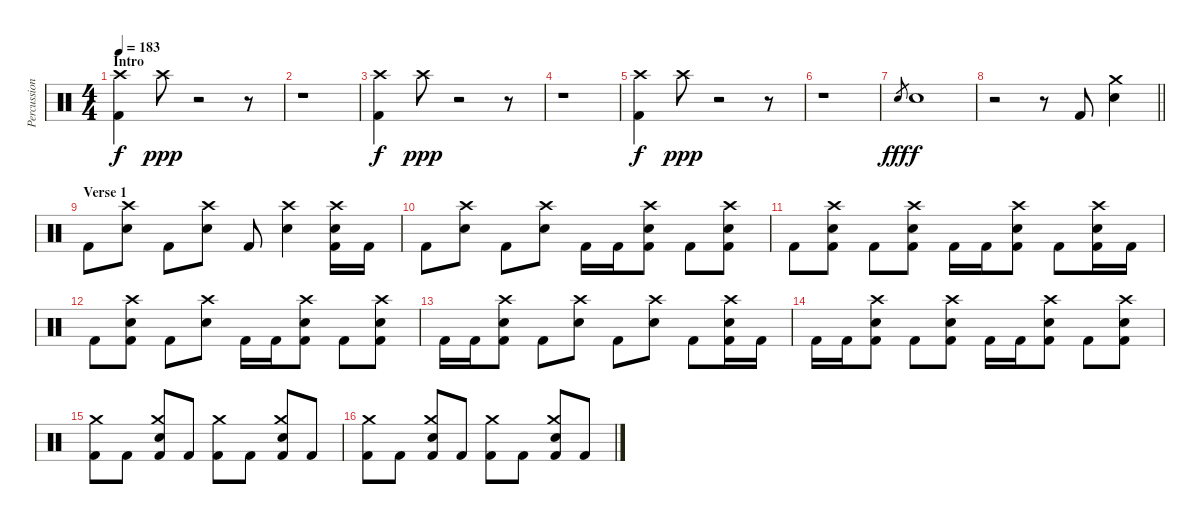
\track ("Percussion" "Percussion") {instrument percussion}
\staff {score}
\articulation defaults
\ts (4 4)
\section ("" "Intro")
\tempo 183
\clef neutral
\ks aminor
("Crash high (hit)" "Kick (hit) 2").4{dy f} "Crash high (hit)".8{dy ppp} r.2 r.8 |
r.1 |
("Crash high (hit)" "Kick (hit) 2").4{dy f} "Crash high (hit)".8{dy ppp} r.2 r.8 |
r.1 |
("Crash high (hit)" "Kick (hit) 2").4{dy f} "Crash high (hit)".8{dy ppp} r.2 r.8 |
r.1 |
"Snare (hit) 2".8{gr dy fff} "Snare (hit) 2".1{dy f} |
\barLineRight lightlight
r.2 r.8 "Kick (hit) 2".8 ("Crash medium (hit)" "Snare (hit) 2").4 |
\section ("" "Verse 1")
"Kick (hit) 2".8 ("Crash high (hit)" "Electric Snare (hit)").8 "Kick (hit) 2".8 ("Crash high (hit)" "Electric Snare (hit)").8 "Kick (hit) 2".8 ("Crash high (hit)" "Electric Snare (hit)").4 ("Crash high (hit)" "Electric Snare (hit)" "Kick (hit) 2").16 "Kick (hit) 2".16 |
"Kick (hit) 2".8 ("Crash high (hit)" "Electric Snare (hit)").8 "Kick (hit) 2".8 ("Crash high (hit)" "Electric Snare (hit)").8 "Kick (hit) 2".16 "Kick (hit) 2".16 ("Crash high (hit)" "Electric Snare (hit)" "Kick (hit) 2").8 "Kick (hit) 2".8 ("Crash high (hit)" "Electric Snare (hit)" "Kick (hit) 2").8 |
"Kick (hit) 2".8 ("Crash high (hit)" "Electric Snare (hit)" "Kick (hit) 2").8 "Kick (hit) 2".8 ("Crash high (hit)" "Electric Snare (hit)" "Kick (hit) 2").8 "Kick (hit) 2".16 "Kick (hit) 2".16 ("Crash high (hit)" "Electric Snare (hit)" "Kick (hit) 2").8 "Kick (hit) 2".8 ("Crash high (hit)" "Electric Snare (hit)" "Kick (hit) 2").16 "Kick (hit) 2".16 |
"Kick (hit) 2".8 ("Crash high (hit)" "Electric Snare (hit)" "Kick (hit) 2").8 "Kick (hit) 2".8 ("Crash high (hit)" "Electric Snare (hit)").8 "Kick (hit) 2".16 "Kick (hit) 2".16 ("Crash high (hit)" "Electric Snare (hit)" "Kick (hit) 2").8 "Kick (hit) 2".8 ("Crash high (hit)" "Electric Snare (hit)" "Kick (hit) 2").8 |
"Kick (hit) 2".16 "Kick (hit) 2".16 ("Crash high (hit)" "Electric Snare (hit)" "Kick (hit) 2").8 "Kick (hit) 2".8 ("Crash high (hit)" "Electric Snare (hit)").8 "Kick (hit) 2".8 ("Crash high (hit)" "Electric Snare (hit)").8 "Kick (hit) 2".8 ("Crash high (hit)" "Electric Snare (hit)" "Kick (hit) 2").16 "Kick (hit) 2".16 |
"Kick (hit) 2".16 "Kick (hit) 2".16 ("Crash high (hit)" "Electric Snare (hit)" "Kick (hit) 2").8 "Kick (hit) 2".8 ("Crash high (hit)" "Electric Snare (hit)" "Kick (hit) 2").8 "Kick (hit) 2".16 "Kick (hit) 2".16 ("Crash high (hit)" "Electric Snare (hit)" "Kick (hit) 2").8 "Kick (hit) 2".8 ("Crash high (hit)" "Electric Snare (hit)" "Kick (hit) 2").8 |
("Crash medium (hit)" "Kick (hit) 2").8 "Kick (hit) 2".8 ("Crash medium (hit)" "Electric Snare (hit)" "Kick (hit) 2").8 "Kick (hit) 2".8 ("Crash medium (hit)" "Kick (hit) 2").8 "Kick (hit) 2".8 ("Crash medium (hit)" "Electric Snare (hit)" "Kick (hit) 2").8 "Kick (hit) 2".8 |
("Crash medium (hit)" "Kick (hit) 2").8 "Kick (hit) 2".8 ("Crash medium (hit)" "Electric Snare (hit)" "Kick (hit) 2").8 "Kick (hit) 2".8 ("Crash medium (hit)" "Kick (hit) 2").8 "Kick (hit) 2".8 ("Crash medium (hit)" "Electric Snare (hit)" "Kick (hit) 2").8 "Kick (hit) 2".8
